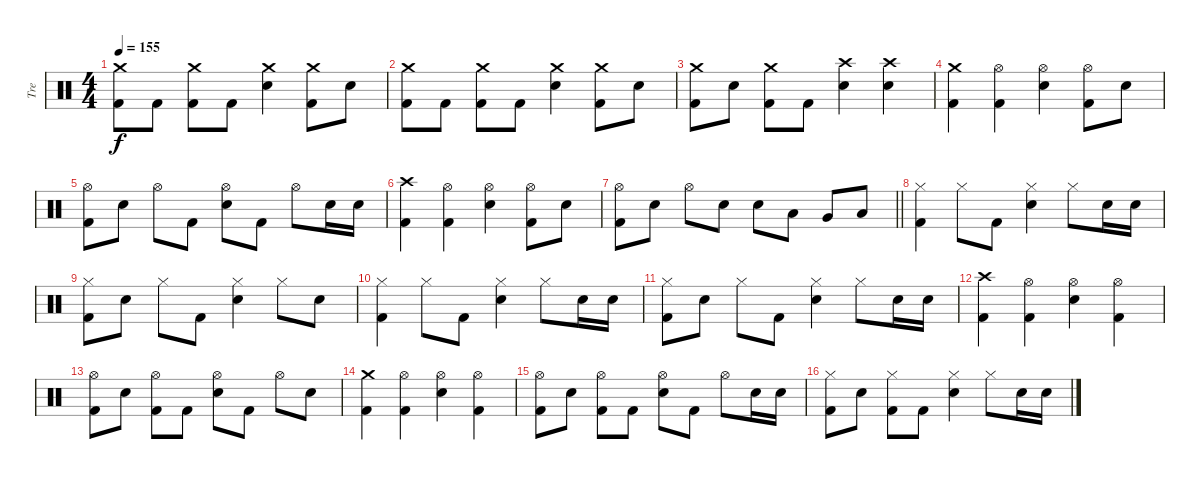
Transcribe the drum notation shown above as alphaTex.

\track ("Tre" "Tre") {instrument percussion}
\staff {score}
\articulation defaults
\ts (4 4)
\tempo 155
\clef neutral
\ks c
("Crash medium (hit)" "Kick (hit) 2").8{dy f} "Kick (hit) 2".8 ("Crash medium (hit)" "Kick (hit) 2").8 "Kick (hit) 2".8 ("Crash medium (hit)" "Snare (hit) 2").4 ("Crash medium (hit)" "Kick (hit) 2").8 "Snare (hit) 2".8 |
("Crash medium (hit)" "Kick (hit) 2").8 "Kick (hit) 2".8 ("Crash medium (hit)" "Kick (hit) 2").8 "Kick (hit) 2".8 ("Crash medium (hit)" "Snare (hit) 2").4 ("Crash medium (hit)" "Kick (hit) 2").8 "Snare (hit) 2".8 |
("Crash medium (hit)" "Kick (hit) 2").8 "Snare (hit) 2".8 ("Crash medium (hit)" "Kick (hit) 2").8 "Kick (hit) 2".8 ("Crash high (hit)" "Snare (hit) 2").4 ("Crash high (hit)" "Snare (hit) 2").4 |
("Crash medium (hit)" "Kick (hit) 2").4 ("Hi-Hat (open)" "Kick (hit) 2").4 ("Hi-Hat (open)" "Snare (hit) 2").4 ("Hi-Hat (open)" "Kick (hit) 2").8 "Snare (hit) 2".8 |
("Hi-Hat (open)" "Kick (hit) 2").8 "Snare (hit) 2".8 "Hi-Hat (open)".8 "Kick (hit) 2".8 ("Hi-Hat (open)" "Snare (hit) 2").8 "Kick (hit) 2".8 "Hi-Hat (open)".8 "Snare (hit) 2".16 "Snare (hit) 2".16 |
("Crash high (hit)" "Kick (hit) 2").4 ("Hi-Hat (open)" "Kick (hit) 2").4 ("Hi-Hat (open)" "Snare (hit) 2").4 ("Hi-Hat (open)" "Kick (hit) 2").8 "Snare (hit) 2".8 |
\barLineRight lightlight
("Hi-Hat (open)" "Kick (hit) 2").8 "Snare (hit) 2".8 "Hi-Hat (open)".8 "Snare (hit) 2".8 "Snare (hit) 2".8 "Low Tom (hit)".8 "Very Low Tom (hit)".8 "Low Floor Tom (hit)".8 |
("Hi-Hat (closed)" "Kick (hit) 2").4 "Hi-Hat (closed)".8 "Kick (hit) 2".8 ("Hi-Hat (closed)" "Snare (hit) 2").4 "Hi-Hat (closed)".8 "Snare (hit) 2".16 "Snare (hit) 2".16 |
("Hi-Hat (closed)" "Kick (hit) 2").8 "Snare (hit) 2".8 "Hi-Hat (closed)".8 "Kick (hit) 2".8 ("Hi-Hat (closed)" "Snare (hit) 2").4 "Hi-Hat (closed)".8 "Snare (hit) 2".8 |
("Hi-Hat (closed)" "Kick (hit) 2").4 "Hi-Hat (closed)".8 "Kick (hit) 2".8 ("Hi-Hat (closed)" "Snare (hit) 2").4 "Hi-Hat (closed)".8 "Snare (hit) 2".16 "Snare (hit) 2".16 |
("Hi-Hat (closed)" "Kick (hit) 2").8 "Snare (hit) 2".8 "Hi-Hat (closed)".8 "Kick (hit) 2".8 ("Hi-Hat (closed)" "Snare (hit) 2").4 "Hi-Hat (closed)".8 "Snare (hit) 2".16 "Snare (hit) 2".16 |
("Crash high (hit)" "Kick (hit) 2").4 ("Hi-Hat (open)" "Kick (hit) 2").4 ("Hi-Hat (open)" "Snare (hit) 2").4 ("Hi-Hat (open)" "Kick (hit) 2").4 |
("Hi-Hat (open)" "Kick (hit) 2").8 "Snare (hit) 2".8 ("Hi-Hat (open)" "Kick (hit) 2").8 "Kick (hit) 2".8 ("Hi-Hat (open)" "Snare (hit) 2").8 "Kick (hit) 2".8 "Hi-Hat (open)".8 "Snare (hit) 2".8 |
("Crash medium (hit)" "Kick (hit) 2").4 ("Hi-Hat (open)" "Kick (hit) 2").4 ("Hi-Hat (open)" "Snare (hit) 2").4 ("Hi-Hat (open)" "Kick (hit) 2").4 |
("Hi-Hat (open)" "Kick (hit) 2").8 "Snare (hit) 2".8 ("Hi-Hat (open)" "Kick (hit) 2").8 "Kick (hit) 2".8 ("Hi-Hat (open)" "Snare (hit) 2").8 "Kick (hit) 2".8 "Hi-Hat (open)".8 "Snare (hit) 2".16 "Snare (hit) 2".16 |
("Hi-Hat (closed)" "Kick (hit) 2").8 "Snare (hit) 2".8 ("Hi-Hat (closed)" "Kick (hit) 2").8 "Kick (hit) 2".8 ("Hi-Hat (closed)" "Snare (hit) 2").4 "Hi-Hat (closed)".8 "Snare (hit) 2".16 "Snare (hit) 2".16
